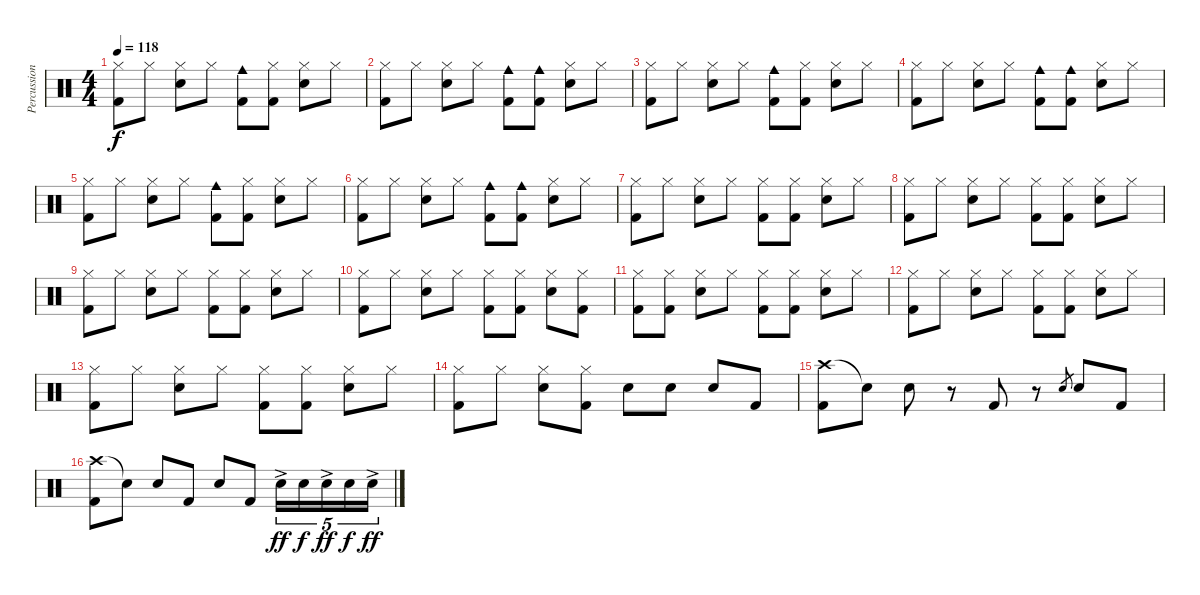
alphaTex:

\track ("Percussion" "Percussion") {instrument percussion}
\staff {score}
\articulation defaults
\ts (4 4)
\tempo 118
\clef neutral
\ks c
("Hi-Hat (closed)" "Kick (hit) 2").8{dy f} "Hi-Hat (closed)".8 ("Hi-Hat (closed)" "Snare (hit) 2").8 "Hi-Hat (closed)".8 ("Cowbell medium (hit)" "Kick (hit) 2").8 ("Hi-Hat (closed)" "Kick (hit) 2").8 ("Hi-Hat (closed)" "Snare (hit) 2").8 "Hi-Hat (closed)".8 |
("Hi-Hat (closed)" "Kick (hit) 2").8 "Hi-Hat (closed)".8 ("Hi-Hat (closed)" "Snare (hit) 2").8 "Hi-Hat (closed)".8 ("Cowbell medium (hit)" "Kick (hit) 2").8 ("Cowbell medium (hit)" "Kick (hit) 2").8 ("Hi-Hat (closed)" "Snare (hit) 2").8 "Hi-Hat (closed)".8 |
("Hi-Hat (closed)" "Kick (hit) 2").8 "Hi-Hat (closed)".8 ("Hi-Hat (closed)" "Snare (hit) 2").8 "Hi-Hat (closed)".8 ("Cowbell medium (hit)" "Kick (hit) 2").8 ("Hi-Hat (closed)" "Kick (hit) 2").8 ("Hi-Hat (closed)" "Snare (hit) 2").8 "Hi-Hat (closed)".8 |
("Hi-Hat (closed)" "Kick (hit) 2").8 "Hi-Hat (closed)".8 ("Hi-Hat (closed)" "Snare (hit) 2").8 "Hi-Hat (closed)".8 ("Cowbell medium (hit)" "Kick (hit) 2").8 ("Cowbell medium (hit)" "Kick (hit) 2").8 ("Hi-Hat (closed)" "Snare (hit) 2").8 "Hi-Hat (closed)".8 |
("Hi-Hat (closed)" "Kick (hit) 2").8 "Hi-Hat (closed)".8 ("Hi-Hat (closed)" "Snare (hit) 2").8 "Hi-Hat (closed)".8 ("Cowbell medium (hit)" "Kick (hit) 2").8 ("Hi-Hat (closed)" "Kick (hit) 2").8 ("Hi-Hat (closed)" "Snare (hit) 2").8 "Hi-Hat (closed)".8 |
("Hi-Hat (closed)" "Kick (hit) 2").8 "Hi-Hat (closed)".8 ("Hi-Hat (closed)" "Snare (hit) 2").8 "Hi-Hat (closed)".8 ("Cowbell medium (hit)" "Kick (hit) 2").8 ("Cowbell medium (hit)" "Kick (hit) 2").8 ("Hi-Hat (closed)" "Snare (hit) 2").8 "Hi-Hat (closed)".8 |
("Hi-Hat (closed)" "Kick (hit) 2").8 "Hi-Hat (closed)".8 ("Hi-Hat (closed)" "Snare (hit) 2").8 "Hi-Hat (closed)".8 ("Hi-Hat (closed)" "Kick (hit) 2").8 ("Hi-Hat (closed)" "Kick (hit) 2").8 ("Hi-Hat (closed)" "Snare (hit) 2").8 "Hi-Hat (closed)".8 |
("Hi-Hat (closed)" "Kick (hit) 2").8 "Hi-Hat (closed)".8 ("Hi-Hat (closed)" "Snare (hit) 2").8 "Hi-Hat (closed)".8 ("Hi-Hat (closed)" "Kick (hit) 2").8 ("Hi-Hat (closed)" "Kick (hit) 2").8 ("Hi-Hat (closed)" "Snare (hit) 2").8 "Hi-Hat (closed)".8 |
("Hi-Hat (closed)" "Kick (hit) 2").8 "Hi-Hat (closed)".8 ("Hi-Hat (closed)" "Snare (hit) 2").8 "Hi-Hat (closed)".8 ("Hi-Hat (closed)" "Kick (hit) 2").8 ("Hi-Hat (closed)" "Kick (hit) 2").8 ("Hi-Hat (closed)" "Snare (hit) 2").8 "Hi-Hat (closed)".8 |
("Hi-Hat (closed)" "Kick (hit) 2").8 "Hi-Hat (closed)".8 ("Hi-Hat (closed)" "Snare (hit) 2").8 "Hi-Hat (closed)".8 ("Hi-Hat (closed)" "Kick (hit) 2").8 ("Hi-Hat (closed)" "Kick (hit) 2").8 ("Hi-Hat (closed)" "Snare (hit) 2").8 ("Hi-Hat (closed)" "Kick (hit) 2").8 |
("Hi-Hat (closed)" "Kick (hit) 2").8 ("Hi-Hat (closed)" "Kick (hit) 2").8 ("Hi-Hat (closed)" "Snare (hit) 2").8 "Hi-Hat (closed)".8 ("Hi-Hat (closed)" "Kick (hit) 2").8 ("Hi-Hat (closed)" "Kick (hit) 2").8 ("Hi-Hat (closed)" "Snare (hit) 2").8 "Hi-Hat (closed)".8 |
("Hi-Hat (closed)" "Kick (hit) 2").8 "Hi-Hat (closed)".8 ("Hi-Hat (closed)" "Snare (hit) 2").8 "Hi-Hat (closed)".8 ("Hi-Hat (closed)" "Kick (hit) 2").8 ("Hi-Hat (closed)" "Kick (hit) 2").8 ("Hi-Hat (closed)" "Snare (hit) 2").8 "Hi-Hat (closed)".8 |
("Hi-Hat (closed)" "Kick (hit) 2").8 "Hi-Hat (closed)".8 ("Hi-Hat (closed)" "Snare (hit) 2").8 "Hi-Hat (closed)".8 ("Hi-Hat (closed)" "Kick (hit) 2").8 ("Hi-Hat (closed)" "Kick (hit) 2").8 ("Hi-Hat (closed)" "Snare (hit) 2").8 "Hi-Hat (closed)".8 |
("Hi-Hat (closed)" "Kick (hit) 2").8 "Hi-Hat (closed)".8 ("Hi-Hat (closed)" "Snare (hit) 2").8 ("Hi-Hat (closed)" "Kick (hit) 2").8 "Snare (hit) 2".8 "Snare (hit) 2".8 "Snare (hit) 2".8 "Kick (hit) 2".8 |
("Crash high (hit)" "Kick (hit) 2").8 "Snare (hit)"{t}.8 "Snare (hit) 2".8 r.8 "Kick (hit) 2".8 r.8 "Snare (hit) 2".8{gr} "Snare (hit) 2".8 "Kick (hit) 2".8 |
("Crash high (hit)" "Kick (hit) 2").8 "Snare (hit)"{t}.8 "Snare (hit) 2".8 "Kick (hit) 2".8 "Snare (hit) 2".8 "Kick (hit) 2".8 "Snare (hit) 2"{ac}.16{tu (5 4) dy ff} "Snare (hit) 2".16{tu (5 4) dy f} "Snare (hit) 2"{ac}.16{tu (5 4) dy ff} "Snare (hit) 2".16{tu (5 4) dy f} "Snare (hit) 2"{ac}.16{tu (5 4) dy ff}
